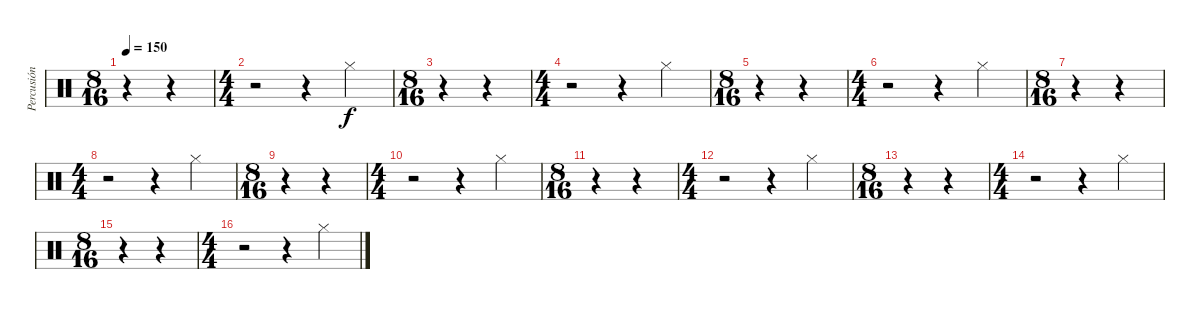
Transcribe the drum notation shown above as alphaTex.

\track ("Percusión" "Percusión") {instrument percussion}
\staff {score}
\articulation defaults
\ts (8 16)
\tempo 150
\clef neutral
\ks c
r.4{dy f} r.4 |
\ts (4 4)
r.2 r.4 "Hi-Hat (closed)".4 |
\ts (8 16)
r.4 r.4 |
\ts (4 4)
r.2 r.4 "Hi-Hat (closed)".4 |
\ts (8 16)
r.4 r.4 |
\ts (4 4)
r.2 r.4 "Hi-Hat (closed)".4 |
\ts (8 16)
r.4 r.4 |
\ts (4 4)
r.2 r.4 "Hi-Hat (closed)".4 |
\ts (8 16)
r.4 r.4 |
\ts (4 4)
r.2 r.4 "Hi-Hat (closed)".4 |
\ts (8 16)
r.4 r.4 |
\ts (4 4)
r.2 r.4 "Hi-Hat (closed)".4 |
\ts (8 16)
r.4 r.4 |
\ts (4 4)
r.2 r.4 "Hi-Hat (closed)".4 |
\ts (8 16)
r.4 r.4 |
\ts (4 4)
r.2 r.4 "Hi-Hat (closed)".4
